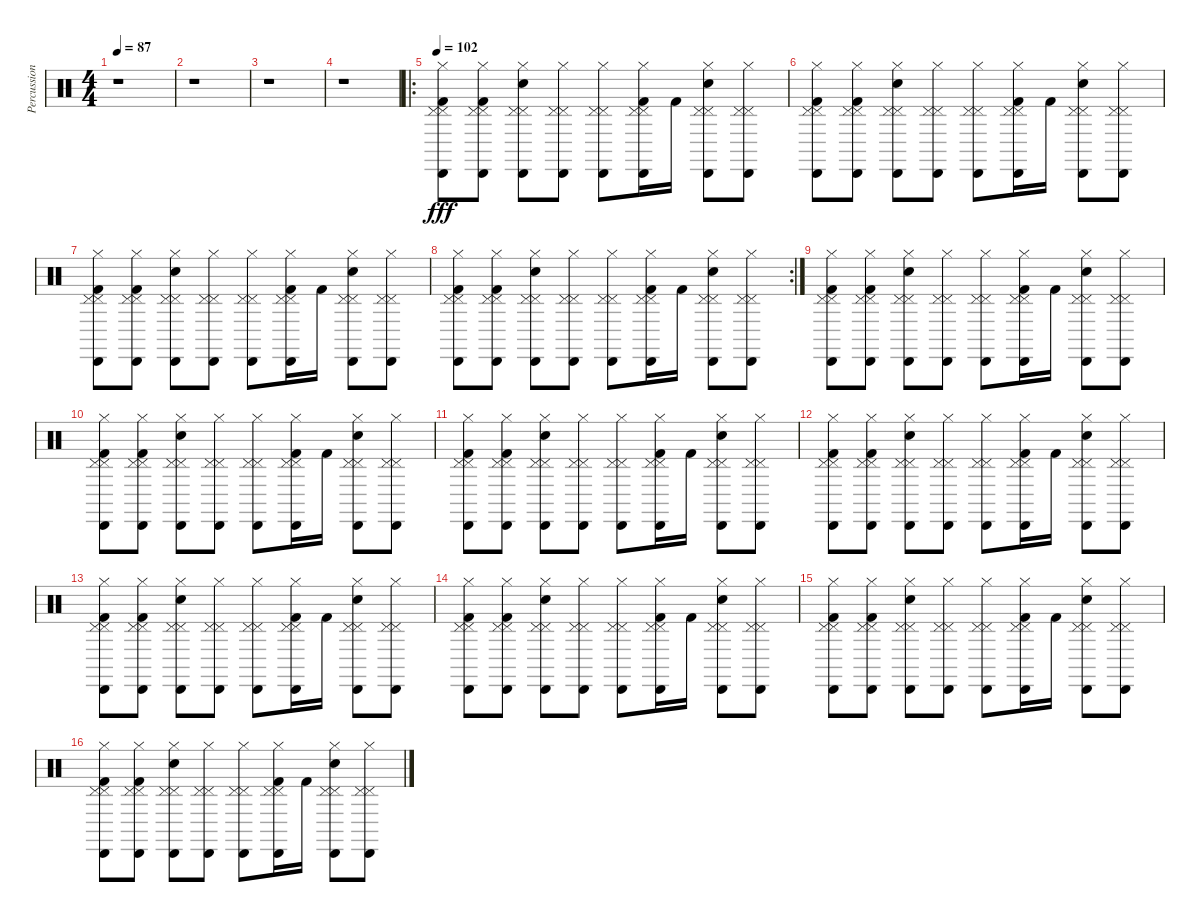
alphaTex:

\track ("Percussion" "Percussion") {instrument percussion}
\staff {score}
\articulation defaults
\ts (4 4)
\tempo 87
\clef neutral
\ks c
r.1{dy fff} |
r.1 |
r.1 |
r.1 |
\ro
\tempo 102
("Hi-Hat (closed)" "Kick (hit) 2" "Cabasa (hit)" "Pedal Hi-Hat (hit)" "Pedal Hi-Hat (hit)").8 ("Hi-Hat (closed)" "Kick (hit) 2" "Cabasa (hit)" "Pedal Hi-Hat (hit)" "Pedal Hi-Hat (hit)").8 ("Hi-Hat (closed)" "Cabasa (hit)" "Electric Snare (hit)" "Pedal Hi-Hat (hit)" "Pedal Hi-Hat (hit)").8 ("Hi-Hat (closed)" "Cabasa (hit)" "Pedal Hi-Hat (hit)" "Pedal Hi-Hat (hit)").8 ("Hi-Hat (closed)" "Cabasa (hit)" "Pedal Hi-Hat (hit)" "Pedal Hi-Hat (hit)").8 ("Hi-Hat (closed)" "Kick (hit) 2" "Cabasa (hit)" "Pedal Hi-Hat (hit)" "Pedal Hi-Hat (hit)").16 "Kick (hit) 2".16 ("Hi-Hat (closed)" "Cabasa (hit)" "Electric Snare (hit)" "Pedal Hi-Hat (hit)" "Pedal Hi-Hat (hit)").8 ("Hi-Hat (closed)" "Cabasa (hit)" "Pedal Hi-Hat (hit)" "Pedal Hi-Hat (hit)").8 |
("Hi-Hat (closed)" "Kick (hit) 2" "Cabasa (hit)" "Pedal Hi-Hat (hit)" "Pedal Hi-Hat (hit)").8 ("Hi-Hat (closed)" "Kick (hit) 2" "Cabasa (hit)" "Pedal Hi-Hat (hit)" "Pedal Hi-Hat (hit)").8 ("Hi-Hat (closed)" "Cabasa (hit)" "Electric Snare (hit)" "Pedal Hi-Hat (hit)" "Pedal Hi-Hat (hit)").8 ("Hi-Hat (closed)" "Cabasa (hit)" "Pedal Hi-Hat (hit)" "Pedal Hi-Hat (hit)").8 ("Hi-Hat (closed)" "Cabasa (hit)" "Pedal Hi-Hat (hit)" "Pedal Hi-Hat (hit)").8 ("Hi-Hat (closed)" "Kick (hit) 2" "Cabasa (hit)" "Pedal Hi-Hat (hit)" "Pedal Hi-Hat (hit)").16 "Kick (hit) 2".16 ("Hi-Hat (closed)" "Cabasa (hit)" "Electric Snare (hit)" "Pedal Hi-Hat (hit)" "Pedal Hi-Hat (hit)").8 ("Hi-Hat (closed)" "Cabasa (hit)" "Pedal Hi-Hat (hit)" "Pedal Hi-Hat (hit)").8 |
("Hi-Hat (closed)" "Kick (hit) 2" "Cabasa (hit)" "Pedal Hi-Hat (hit)" "Pedal Hi-Hat (hit)").8 ("Hi-Hat (closed)" "Kick (hit) 2" "Cabasa (hit)" "Pedal Hi-Hat (hit)" "Pedal Hi-Hat (hit)").8 ("Hi-Hat (closed)" "Cabasa (hit)" "Electric Snare (hit)" "Pedal Hi-Hat (hit)" "Pedal Hi-Hat (hit)").8 ("Hi-Hat (closed)" "Cabasa (hit)" "Pedal Hi-Hat (hit)" "Pedal Hi-Hat (hit)").8 ("Hi-Hat (closed)" "Cabasa (hit)" "Pedal Hi-Hat (hit)" "Pedal Hi-Hat (hit)").8 ("Hi-Hat (closed)" "Kick (hit) 2" "Cabasa (hit)" "Pedal Hi-Hat (hit)" "Pedal Hi-Hat (hit)").16 "Kick (hit) 2".16 ("Hi-Hat (closed)" "Cabasa (hit)" "Electric Snare (hit)" "Pedal Hi-Hat (hit)" "Pedal Hi-Hat (hit)").8 ("Hi-Hat (closed)" "Cabasa (hit)" "Pedal Hi-Hat (hit)" "Pedal Hi-Hat (hit)").8 |
\rc 2
("Hi-Hat (closed)" "Kick (hit) 2" "Cabasa (hit)" "Pedal Hi-Hat (hit)" "Pedal Hi-Hat (hit)").8 ("Hi-Hat (closed)" "Kick (hit) 2" "Cabasa (hit)" "Pedal Hi-Hat (hit)" "Pedal Hi-Hat (hit)").8 ("Hi-Hat (closed)" "Cabasa (hit)" "Electric Snare (hit)" "Pedal Hi-Hat (hit)" "Pedal Hi-Hat (hit)").8 ("Hi-Hat (closed)" "Cabasa (hit)" "Pedal Hi-Hat (hit)" "Pedal Hi-Hat (hit)").8 ("Hi-Hat (closed)" "Cabasa (hit)" "Pedal Hi-Hat (hit)" "Pedal Hi-Hat (hit)").8 ("Hi-Hat (closed)" "Kick (hit) 2" "Cabasa (hit)" "Pedal Hi-Hat (hit)" "Pedal Hi-Hat (hit)").16 "Kick (hit) 2".16 ("Hi-Hat (closed)" "Cabasa (hit)" "Electric Snare (hit)" "Pedal Hi-Hat (hit)" "Pedal Hi-Hat (hit)").8 ("Hi-Hat (closed)" "Cabasa (hit)" "Pedal Hi-Hat (hit)" "Pedal Hi-Hat (hit)").8 |
("Hi-Hat (closed)" "Kick (hit) 2" "Cabasa (hit)" "Pedal Hi-Hat (hit)" "Pedal Hi-Hat (hit)").8 ("Hi-Hat (closed)" "Kick (hit) 2" "Cabasa (hit)" "Pedal Hi-Hat (hit)" "Pedal Hi-Hat (hit)").8 ("Hi-Hat (closed)" "Cabasa (hit)" "Electric Snare (hit)" "Pedal Hi-Hat (hit)" "Pedal Hi-Hat (hit)").8 ("Hi-Hat (closed)" "Cabasa (hit)" "Pedal Hi-Hat (hit)" "Pedal Hi-Hat (hit)").8 ("Hi-Hat (closed)" "Cabasa (hit)" "Pedal Hi-Hat (hit)" "Pedal Hi-Hat (hit)").8 ("Hi-Hat (closed)" "Kick (hit) 2" "Cabasa (hit)" "Pedal Hi-Hat (hit)" "Pedal Hi-Hat (hit)").16 "Kick (hit) 2".16 ("Hi-Hat (closed)" "Cabasa (hit)" "Electric Snare (hit)" "Pedal Hi-Hat (hit)" "Pedal Hi-Hat (hit)").8 ("Hi-Hat (closed)" "Cabasa (hit)" "Pedal Hi-Hat (hit)" "Pedal Hi-Hat (hit)").8 |
("Hi-Hat (closed)" "Kick (hit) 2" "Cabasa (hit)" "Pedal Hi-Hat (hit)" "Pedal Hi-Hat (hit)").8 ("Hi-Hat (closed)" "Kick (hit) 2" "Cabasa (hit)" "Pedal Hi-Hat (hit)" "Pedal Hi-Hat (hit)").8 ("Hi-Hat (closed)" "Cabasa (hit)" "Electric Snare (hit)" "Pedal Hi-Hat (hit)" "Pedal Hi-Hat (hit)").8 ("Hi-Hat (closed)" "Cabasa (hit)" "Pedal Hi-Hat (hit)" "Pedal Hi-Hat (hit)").8 ("Hi-Hat (closed)" "Cabasa (hit)" "Pedal Hi-Hat (hit)" "Pedal Hi-Hat (hit)").8 ("Hi-Hat (closed)" "Kick (hit) 2" "Cabasa (hit)" "Pedal Hi-Hat (hit)" "Pedal Hi-Hat (hit)").16 "Kick (hit) 2".16 ("Hi-Hat (closed)" "Cabasa (hit)" "Electric Snare (hit)" "Pedal Hi-Hat (hit)" "Pedal Hi-Hat (hit)").8 ("Hi-Hat (closed)" "Cabasa (hit)" "Pedal Hi-Hat (hit)" "Pedal Hi-Hat (hit)").8 |
("Hi-Hat (closed)" "Kick (hit) 2" "Cabasa (hit)" "Pedal Hi-Hat (hit)" "Pedal Hi-Hat (hit)").8 ("Hi-Hat (closed)" "Kick (hit) 2" "Cabasa (hit)" "Pedal Hi-Hat (hit)" "Pedal Hi-Hat (hit)").8 ("Hi-Hat (closed)" "Cabasa (hit)" "Electric Snare (hit)" "Pedal Hi-Hat (hit)" "Pedal Hi-Hat (hit)").8 ("Hi-Hat (closed)" "Cabasa (hit)" "Pedal Hi-Hat (hit)" "Pedal Hi-Hat (hit)").8 ("Hi-Hat (closed)" "Cabasa (hit)" "Pedal Hi-Hat (hit)" "Pedal Hi-Hat (hit)").8 ("Hi-Hat (closed)" "Kick (hit) 2" "Cabasa (hit)" "Pedal Hi-Hat (hit)" "Pedal Hi-Hat (hit)").16 "Kick (hit) 2".16 ("Hi-Hat (closed)" "Cabasa (hit)" "Electric Snare (hit)" "Pedal Hi-Hat (hit)" "Pedal Hi-Hat (hit)").8 ("Hi-Hat (closed)" "Cabasa (hit)" "Pedal Hi-Hat (hit)" "Pedal Hi-Hat (hit)").8 |
("Hi-Hat (closed)" "Kick (hit) 2" "Cabasa (hit)" "Pedal Hi-Hat (hit)" "Pedal Hi-Hat (hit)").8 ("Hi-Hat (closed)" "Kick (hit) 2" "Cabasa (hit)" "Pedal Hi-Hat (hit)" "Pedal Hi-Hat (hit)").8 ("Hi-Hat (closed)" "Cabasa (hit)" "Electric Snare (hit)" "Pedal Hi-Hat (hit)" "Pedal Hi-Hat (hit)").8 ("Hi-Hat (closed)" "Cabasa (hit)" "Pedal Hi-Hat (hit)" "Pedal Hi-Hat (hit)").8 ("Hi-Hat (closed)" "Cabasa (hit)" "Pedal Hi-Hat (hit)" "Pedal Hi-Hat (hit)").8 ("Hi-Hat (closed)" "Kick (hit) 2" "Cabasa (hit)" "Pedal Hi-Hat (hit)" "Pedal Hi-Hat (hit)").16 "Kick (hit) 2".16 ("Hi-Hat (closed)" "Cabasa (hit)" "Electric Snare (hit)" "Pedal Hi-Hat (hit)" "Pedal Hi-Hat (hit)").8 ("Hi-Hat (closed)" "Cabasa (hit)" "Pedal Hi-Hat (hit)" "Pedal Hi-Hat (hit)").8 |
("Hi-Hat (closed)" "Kick (hit) 2" "Cabasa (hit)" "Pedal Hi-Hat (hit)" "Pedal Hi-Hat (hit)").8 ("Hi-Hat (closed)" "Kick (hit) 2" "Cabasa (hit)" "Pedal Hi-Hat (hit)" "Pedal Hi-Hat (hit)").8 ("Hi-Hat (closed)" "Cabasa (hit)" "Electric Snare (hit)" "Pedal Hi-Hat (hit)" "Pedal Hi-Hat (hit)").8 ("Hi-Hat (closed)" "Cabasa (hit)" "Pedal Hi-Hat (hit)" "Pedal Hi-Hat (hit)").8 ("Hi-Hat (closed)" "Cabasa (hit)" "Pedal Hi-Hat (hit)" "Pedal Hi-Hat (hit)").8 ("Hi-Hat (closed)" "Kick (hit) 2" "Cabasa (hit)" "Pedal Hi-Hat (hit)" "Pedal Hi-Hat (hit)").16 "Kick (hit) 2".16 ("Hi-Hat (closed)" "Cabasa (hit)" "Electric Snare (hit)" "Pedal Hi-Hat (hit)" "Pedal Hi-Hat (hit)").8 ("Hi-Hat (closed)" "Cabasa (hit)" "Pedal Hi-Hat (hit)" "Pedal Hi-Hat (hit)").8 |
("Hi-Hat (closed)" "Kick (hit) 2" "Cabasa (hit)" "Pedal Hi-Hat (hit)" "Pedal Hi-Hat (hit)").8 ("Hi-Hat (closed)" "Kick (hit) 2" "Cabasa (hit)" "Pedal Hi-Hat (hit)" "Pedal Hi-Hat (hit)").8 ("Hi-Hat (closed)" "Cabasa (hit)" "Electric Snare (hit)" "Pedal Hi-Hat (hit)" "Pedal Hi-Hat (hit)").8 ("Hi-Hat (closed)" "Cabasa (hit)" "Pedal Hi-Hat (hit)" "Pedal Hi-Hat (hit)").8 ("Hi-Hat (closed)" "Cabasa (hit)" "Pedal Hi-Hat (hit)" "Pedal Hi-Hat (hit)").8 ("Hi-Hat (closed)" "Kick (hit) 2" "Cabasa (hit)" "Pedal Hi-Hat (hit)" "Pedal Hi-Hat (hit)").16 "Kick (hit) 2".16 ("Hi-Hat (closed)" "Cabasa (hit)" "Electric Snare (hit)" "Pedal Hi-Hat (hit)" "Pedal Hi-Hat (hit)").8 ("Hi-Hat (closed)" "Cabasa (hit)" "Pedal Hi-Hat (hit)" "Pedal Hi-Hat (hit)").8 |
("Hi-Hat (closed)" "Kick (hit) 2" "Cabasa (hit)" "Pedal Hi-Hat (hit)" "Pedal Hi-Hat (hit)").8 ("Hi-Hat (closed)" "Kick (hit) 2" "Cabasa (hit)" "Pedal Hi-Hat (hit)" "Pedal Hi-Hat (hit)").8 ("Hi-Hat (closed)" "Cabasa (hit)" "Electric Snare (hit)" "Pedal Hi-Hat (hit)" "Pedal Hi-Hat (hit)").8 ("Hi-Hat (closed)" "Cabasa (hit)" "Pedal Hi-Hat (hit)" "Pedal Hi-Hat (hit)").8 ("Hi-Hat (closed)" "Cabasa (hit)" "Pedal Hi-Hat (hit)" "Pedal Hi-Hat (hit)").8 ("Hi-Hat (closed)" "Kick (hit) 2" "Cabasa (hit)" "Pedal Hi-Hat (hit)" "Pedal Hi-Hat (hit)").16 "Kick (hit) 2".16 ("Hi-Hat (closed)" "Cabasa (hit)" "Electric Snare (hit)" "Pedal Hi-Hat (hit)" "Pedal Hi-Hat (hit)").8 ("Hi-Hat (closed)" "Cabasa (hit)" "Pedal Hi-Hat (hit)" "Pedal Hi-Hat (hit)").8 |
("Hi-Hat (closed)" "Kick (hit) 2" "Cabasa (hit)" "Pedal Hi-Hat (hit)" "Pedal Hi-Hat (hit)").8 ("Hi-Hat (closed)" "Kick (hit) 2" "Cabasa (hit)" "Pedal Hi-Hat (hit)" "Pedal Hi-Hat (hit)").8 ("Hi-Hat (closed)" "Cabasa (hit)" "Electric Snare (hit)" "Pedal Hi-Hat (hit)" "Pedal Hi-Hat (hit)").8 ("Hi-Hat (closed)" "Cabasa (hit)" "Pedal Hi-Hat (hit)" "Pedal Hi-Hat (hit)").8 ("Hi-Hat (closed)" "Cabasa (hit)" "Pedal Hi-Hat (hit)" "Pedal Hi-Hat (hit)").8 ("Hi-Hat (closed)" "Kick (hit) 2" "Cabasa (hit)" "Pedal Hi-Hat (hit)" "Pedal Hi-Hat (hit)").16 "Kick (hit) 2".16 ("Hi-Hat (closed)" "Cabasa (hit)" "Electric Snare (hit)" "Pedal Hi-Hat (hit)" "Pedal Hi-Hat (hit)").8 ("Hi-Hat (closed)" "Cabasa (hit)" "Pedal Hi-Hat (hit)" "Pedal Hi-Hat (hit)").8
